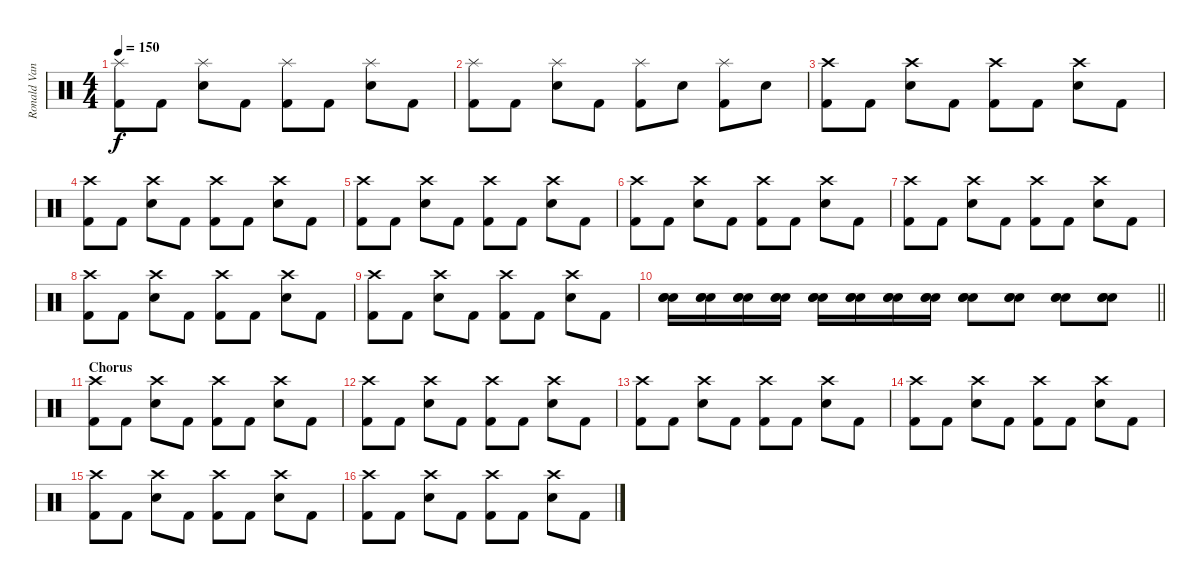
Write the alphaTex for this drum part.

\track ("Ronald Vanucci Jr (Drums)" "Ronald Van") {instrument percussion}
\staff {score}
\articulation defaults
\ts (4 4)
\tempo 150
\clef neutral
\ks c
("Splash (hit)" "Kick (hit) 2").8{dy f} "Kick (hit) 2".8 ("Splash (hit)" "Snare (hit) 2").8 "Kick (hit) 2".8 ("Splash (hit)" "Kick (hit) 2").8 "Kick (hit) 2".8 ("Splash (hit)" "Snare (hit) 2").8 "Kick (hit) 2".8 |
("Splash (hit)" "Kick (hit) 2").8 "Kick (hit) 2".8 ("Splash (hit)" "Snare (hit) 2").8 "Kick (hit) 2".8 ("Splash (hit)" "Kick (hit) 2").8 "Snare (hit) 2".8 ("Splash (hit)" "Kick (hit) 2").8 "Snare (hit) 2".8 |
("Crash high (hit)" "Kick (hit) 2").8 "Kick (hit) 2".8 ("Crash high (hit)" "Snare (hit) 2").8 "Kick (hit) 2".8 ("Crash high (hit)" "Kick (hit) 2").8 "Kick (hit) 2".8 ("Crash high (hit)" "Snare (hit) 2").8 "Kick (hit) 2".8 |
("Crash high (hit)" "Kick (hit) 2").8 "Kick (hit) 2".8 ("Crash high (hit)" "Snare (hit) 2").8 "Kick (hit) 2".8 ("Crash high (hit)" "Kick (hit) 2").8 "Kick (hit) 2".8 ("Crash high (hit)" "Snare (hit) 2").8 "Kick (hit) 2".8 |
("Crash high (hit)" "Kick (hit) 2").8 "Kick (hit) 2".8 ("Crash high (hit)" "Snare (hit) 2").8 "Kick (hit) 2".8 ("Crash high (hit)" "Kick (hit) 2").8 "Kick (hit) 2".8 ("Crash high (hit)" "Snare (hit) 2").8 "Kick (hit) 2".8 |
("Crash high (hit)" "Kick (hit) 2").8 "Kick (hit) 2".8 ("Crash high (hit)" "Snare (hit) 2").8 "Kick (hit) 2".8 ("Crash high (hit)" "Kick (hit) 2").8 "Kick (hit) 2".8 ("Crash high (hit)" "Snare (hit) 2").8 "Kick (hit) 2".8 |
("Crash high (hit)" "Kick (hit) 2").8 "Kick (hit) 2".8 ("Crash high (hit)" "Snare (hit) 2").8 "Kick (hit) 2".8 ("Crash high (hit)" "Kick (hit) 2").8 "Kick (hit) 2".8 ("Crash high (hit)" "Snare (hit) 2").8 "Kick (hit) 2".8 |
("Crash high (hit)" "Kick (hit) 2").8 "Kick (hit) 2".8 ("Crash high (hit)" "Snare (hit) 2").8 "Kick (hit) 2".8 ("Crash high (hit)" "Kick (hit) 2").8 "Kick (hit) 2".8 ("Crash high (hit)" "Snare (hit) 2").8 "Kick (hit) 2".8 |
("Crash high (hit)" "Kick (hit) 2").8 "Kick (hit) 2".8 ("Crash high (hit)" "Snare (hit) 2").8 "Kick (hit) 2".8 ("Crash high (hit)" "Kick (hit) 2").8 "Kick (hit) 2".8 ("Crash high (hit)" "Snare (hit) 2").8 "Kick (hit) 2".8 |
\barLineRight lightlight
("Hand Clap (hit)" "Electric Snare (hit)" "Snare (hit) 2").16 ("Hand Clap (hit)" "Electric Snare (hit)" "Snare (hit) 2").16 ("Hand Clap (hit)" "Electric Snare (hit)" "Snare (hit) 2").16 ("Hand Clap (hit)" "Electric Snare (hit)" "Snare (hit) 2").16 ("Hand Clap (hit)" "Electric Snare (hit)" "Snare (hit) 2").16 ("Hand Clap (hit)" "Electric Snare (hit)" "Snare (hit) 2").16 ("Hand Clap (hit)" "Electric Snare (hit)" "Snare (hit) 2").16 ("Hand Clap (hit)" "Electric Snare (hit)" "Snare (hit) 2").16 ("Hand Clap (hit)" "Electric Snare (hit)" "Snare (hit) 2").8 ("Hand Clap (hit)" "Electric Snare (hit)" "Snare (hit) 2").8 ("Hand Clap (hit)" "Electric Snare (hit)" "Snare (hit) 2").8 ("Hand Clap (hit)" "Electric Snare (hit)" "Snare (hit) 2").8 |
\section ("" "Chorus")
("Crash high (hit)" "Kick (hit) 2").8 "Kick (hit) 2".8 ("Crash high (hit)" "Snare (hit) 2").8 "Kick (hit) 2".8 ("Crash high (hit)" "Kick (hit) 2").8 "Kick (hit) 2".8 ("Crash high (hit)" "Snare (hit) 2").8 "Kick (hit) 2".8 |
("Crash high (hit)" "Kick (hit) 2").8 "Kick (hit) 2".8 ("Crash high (hit)" "Snare (hit) 2").8 "Kick (hit) 2".8 ("Crash high (hit)" "Kick (hit) 2").8 "Kick (hit) 2".8 ("Crash high (hit)" "Snare (hit) 2").8 "Kick (hit) 2".8 |
("Crash high (hit)" "Kick (hit) 2").8 "Kick (hit) 2".8 ("Crash high (hit)" "Snare (hit) 2").8 "Kick (hit) 2".8 ("Crash high (hit)" "Kick (hit) 2").8 "Kick (hit) 2".8 ("Crash high (hit)" "Snare (hit) 2").8 "Kick (hit) 2".8 |
("Crash high (hit)" "Kick (hit) 2").8 "Kick (hit) 2".8 ("Crash high (hit)" "Snare (hit) 2").8 "Kick (hit) 2".8 ("Crash high (hit)" "Kick (hit) 2").8 "Kick (hit) 2".8 ("Crash high (hit)" "Snare (hit) 2").8 "Kick (hit) 2".8 |
("Crash high (hit)" "Kick (hit) 2").8 "Kick (hit) 2".8 ("Crash high (hit)" "Snare (hit) 2").8 "Kick (hit) 2".8 ("Crash high (hit)" "Kick (hit) 2").8 "Kick (hit) 2".8 ("Crash high (hit)" "Snare (hit) 2").8 "Kick (hit) 2".8 |
("Crash high (hit)" "Kick (hit) 2").8 "Kick (hit) 2".8 ("Crash high (hit)" "Snare (hit) 2").8 "Kick (hit) 2".8 ("Crash high (hit)" "Kick (hit) 2").8 "Kick (hit) 2".8 ("Crash high (hit)" "Snare (hit) 2").8 "Kick (hit) 2".8
